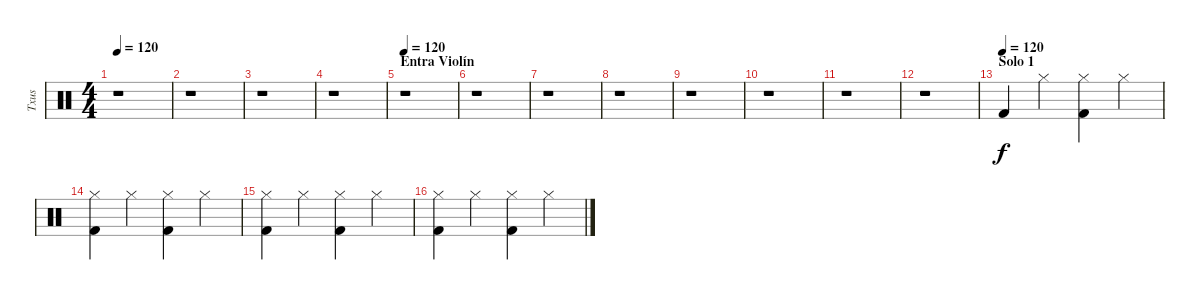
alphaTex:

\track ("Txus" "Txus") {instrument percussion}
\staff {score}
\articulation defaults
\ts (4 4)
\tempo 120
\clef neutral
\ks c
r.1{dy f} |
r.1 |
r.1 |
r.1 |
\section ("" "Entra Violín")
\tempo 120
r.1 |
r.1 |
r.1 |
r.1 |
r.1 |
r.1 |
r.1 |
r.1 |
\section ("" "Solo 1")
\tempo (120)
"Kick (hit) 2".4{volume 8} "Hi-Hat (closed)".4 ("Hi-Hat (closed)" "Kick (hit) 2").4 "Hi-Hat (closed)".4 |
("Hi-Hat (closed)" "Kick (hit) 2").4 "Hi-Hat (closed)".4 ("Hi-Hat (closed)" "Kick (hit) 2").4 "Hi-Hat (closed)".4 |
("Hi-Hat (closed)" "Kick (hit) 2").4 "Hi-Hat (closed)".4 ("Hi-Hat (closed)" "Kick (hit) 2").4 "Hi-Hat (closed)".4 |
("Hi-Hat (closed)" "Kick (hit) 2").4 "Hi-Hat (closed)".4 ("Hi-Hat (closed)" "Kick (hit) 2").4 "Hi-Hat (closed)".4
